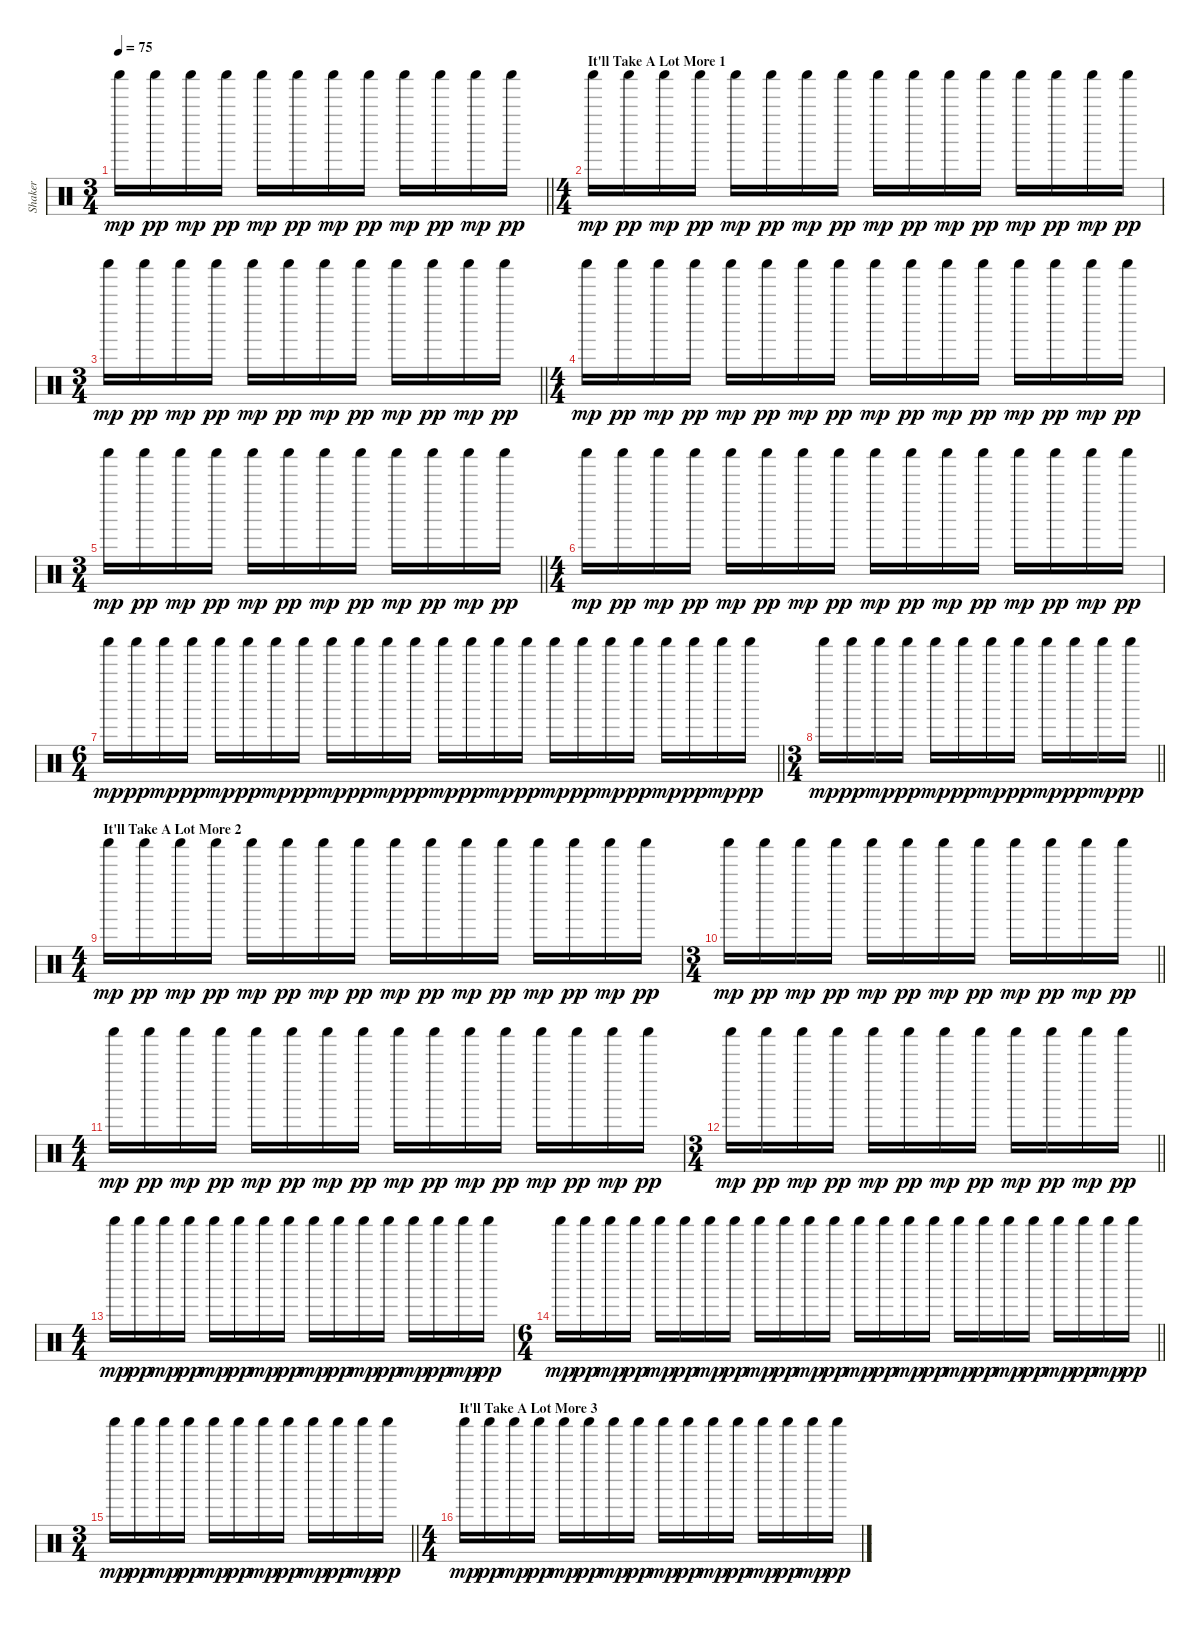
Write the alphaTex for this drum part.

\track ("Shaker" "Shaker") {instrument percussion}
\staff {score}
\articulation defaults
\ts (3 4)
\tempo 75
\clef neutral
\barLineRight lightlight
\ks c "Shaker (hit)".16{dy mp} "Shaker (hit)".16{dy pp} "Shaker (hit)".16{dy mp} "Shaker (hit)".16{dy pp} "Shaker (hit)".16{dy mp} "Shaker (hit)".16{dy pp} "Shaker (hit)".16{dy mp} "Shaker (hit)".16{dy pp} "Shaker (hit)".16{dy mp} "Shaker (hit)".16{dy pp} "Shaker (hit)".16{dy mp} "Shaker (hit)".16{dy pp}
|
\ts (4 4)
\section ("" "It'll Take A Lot More 1")
"Shaker (hit)".16{dy mp} "Shaker (hit)".16{dy pp} "Shaker (hit)".16{dy mp} "Shaker (hit)".16{dy pp} "Shaker (hit)".16{dy mp} "Shaker (hit)".16{dy pp} "Shaker (hit)".16{dy mp} "Shaker (hit)".16{dy pp} "Shaker (hit)".16{dy mp} "Shaker (hit)".16{dy pp} "Shaker (hit)".16{dy mp} "Shaker (hit)".16{dy pp} "Shaker (hit)".16{dy mp} "Shaker (hit)".16{dy pp} "Shaker (hit)".16{dy mp} "Shaker (hit)".16{dy pp} |
\ts (3 4)
\barLineRight lightlight "Shaker (hit)".16{dy mp} "Shaker (hit)".16{dy pp} "Shaker (hit)".16{dy mp} "Shaker (hit)".16{dy pp} "Shaker (hit)".16{dy mp} "Shaker (hit)".16{dy pp} "Shaker (hit)".16{dy mp} "Shaker (hit)".16{dy pp} "Shaker (hit)".16{dy mp} "Shaker (hit)".16{dy pp} "Shaker (hit)".16{dy mp} "Shaker (hit)".16{dy pp}
|
\ts (4 4)
"Shaker (hit)".16{dy mp} "Shaker (hit)".16{dy pp} "Shaker (hit)".16{dy mp} "Shaker (hit)".16{dy pp} "Shaker (hit)".16{dy mp} "Shaker (hit)".16{dy pp} "Shaker (hit)".16{dy mp} "Shaker (hit)".16{dy pp} "Shaker (hit)".16{dy mp} "Shaker (hit)".16{dy pp} "Shaker (hit)".16{dy mp} "Shaker (hit)".16{dy pp} "Shaker (hit)".16{dy mp} "Shaker (hit)".16{dy pp} "Shaker (hit)".16{dy mp} "Shaker (hit)".16{dy pp} |
\ts (3 4)
\barLineRight lightlight "Shaker (hit)".16{dy mp} "Shaker (hit)".16{dy pp} "Shaker (hit)".16{dy mp} "Shaker (hit)".16{dy pp} "Shaker (hit)".16{dy mp} "Shaker (hit)".16{dy pp} "Shaker (hit)".16{dy mp} "Shaker (hit)".16{dy pp} "Shaker (hit)".16{dy mp} "Shaker (hit)".16{dy pp} "Shaker (hit)".16{dy mp} "Shaker (hit)".16{dy pp}
|
\ts (4 4)
"Shaker (hit)".16{dy mp} "Shaker (hit)".16{dy pp} "Shaker (hit)".16{dy mp} "Shaker (hit)".16{dy pp} "Shaker (hit)".16{dy mp} "Shaker (hit)".16{dy pp} "Shaker (hit)".16{dy mp} "Shaker (hit)".16{dy pp} "Shaker (hit)".16{dy mp} "Shaker (hit)".16{dy pp} "Shaker (hit)".16{dy mp} "Shaker (hit)".16{dy pp} "Shaker (hit)".16{dy mp} "Shaker (hit)".16{dy pp} "Shaker (hit)".16{dy mp} "Shaker (hit)".16{dy pp} |
\ts (6 4)
\barLineRight lightlight "Shaker (hit)".16{dy mp} "Shaker (hit)".16{dy pp} "Shaker (hit)".16{dy mp} "Shaker (hit)".16{dy pp} "Shaker (hit)".16{dy mp} "Shaker (hit)".16{dy pp} "Shaker (hit)".16{dy mp} "Shaker (hit)".16{dy pp} "Shaker (hit)".16{dy mp} "Shaker (hit)".16{dy pp} "Shaker (hit)".16{dy mp} "Shaker (hit)".16{dy pp} "Shaker (hit)".16{dy mp} "Shaker (hit)".16{dy pp} "Shaker (hit)".16{dy mp} "Shaker (hit)".16{dy pp} "Shaker (hit)".16{dy mp} "Shaker (hit)".16{dy pp} "Shaker (hit)".16{dy mp} "Shaker (hit)".16{dy pp} "Shaker (hit)".16{dy mp} "Shaker (hit)".16{dy pp} "Shaker (hit)".16{dy mp} "Shaker (hit)".16{dy pp}
|
\ts (3 4)
\barLineRight lightlight "Shaker (hit)".16{dy mp} "Shaker (hit)".16{dy pp} "Shaker (hit)".16{dy mp} "Shaker (hit)".16{dy pp} "Shaker (hit)".16{dy mp} "Shaker (hit)".16{dy pp} "Shaker (hit)".16{dy mp} "Shaker (hit)".16{dy pp} "Shaker (hit)".16{dy mp} "Shaker (hit)".16{dy pp} "Shaker (hit)".16{dy mp} "Shaker (hit)".16{dy pp}
|
\ts (4 4)
\section ("" "It'll Take A Lot More 2")
"Shaker (hit)".16{dy mp} "Shaker (hit)".16{dy pp} "Shaker (hit)".16{dy mp} "Shaker (hit)".16{dy pp} "Shaker (hit)".16{dy mp} "Shaker (hit)".16{dy pp} "Shaker (hit)".16{dy mp} "Shaker (hit)".16{dy pp} "Shaker (hit)".16{dy mp} "Shaker (hit)".16{dy pp} "Shaker (hit)".16{dy mp} "Shaker (hit)".16{dy pp} "Shaker (hit)".16{dy mp} "Shaker (hit)".16{dy pp} "Shaker (hit)".16{dy mp} "Shaker (hit)".16{dy pp} |
\ts (3 4)
\barLineRight lightlight "Shaker (hit)".16{dy mp} "Shaker (hit)".16{dy pp} "Shaker (hit)".16{dy mp} "Shaker (hit)".16{dy pp} "Shaker (hit)".16{dy mp} "Shaker (hit)".16{dy pp} "Shaker (hit)".16{dy mp} "Shaker (hit)".16{dy pp} "Shaker (hit)".16{dy mp} "Shaker (hit)".16{dy pp} "Shaker (hit)".16{dy mp} "Shaker (hit)".16{dy pp}
|
\ts (4 4)
"Shaker (hit)".16{dy mp} "Shaker (hit)".16{dy pp} "Shaker (hit)".16{dy mp} "Shaker (hit)".16{dy pp} "Shaker (hit)".16{dy mp} "Shaker (hit)".16{dy pp} "Shaker (hit)".16{dy mp} "Shaker (hit)".16{dy pp} "Shaker (hit)".16{dy mp} "Shaker (hit)".16{dy pp} "Shaker (hit)".16{dy mp} "Shaker (hit)".16{dy pp} "Shaker (hit)".16{dy mp} "Shaker (hit)".16{dy pp} "Shaker (hit)".16{dy mp} "Shaker (hit)".16{dy pp} |
\ts (3 4)
\barLineRight lightlight "Shaker (hit)".16{dy mp} "Shaker (hit)".16{dy pp} "Shaker (hit)".16{dy mp} "Shaker (hit)".16{dy pp} "Shaker (hit)".16{dy mp} "Shaker (hit)".16{dy pp} "Shaker (hit)".16{dy mp} "Shaker (hit)".16{dy pp} "Shaker (hit)".16{dy mp} "Shaker (hit)".16{dy pp} "Shaker (hit)".16{dy mp} "Shaker (hit)".16{dy pp}
|
\ts (4 4)
"Shaker (hit)".16{dy mp} "Shaker (hit)".16{dy pp} "Shaker (hit)".16{dy mp} "Shaker (hit)".16{dy pp} "Shaker (hit)".16{dy mp} "Shaker (hit)".16{dy pp} "Shaker (hit)".16{dy mp} "Shaker (hit)".16{dy pp} "Shaker (hit)".16{dy mp} "Shaker (hit)".16{dy pp} "Shaker (hit)".16{dy mp} "Shaker (hit)".16{dy pp} "Shaker (hit)".16{dy mp} "Shaker (hit)".16{dy pp} "Shaker (hit)".16{dy mp} "Shaker (hit)".16{dy pp} |
\ts (6 4)
\barLineRight lightlight "Shaker (hit)".16{dy mp} "Shaker (hit)".16{dy pp} "Shaker (hit)".16{dy mp} "Shaker (hit)".16{dy pp} "Shaker (hit)".16{dy mp} "Shaker (hit)".16{dy pp} "Shaker (hit)".16{dy mp} "Shaker (hit)".16{dy pp} "Shaker (hit)".16{dy mp} "Shaker (hit)".16{dy pp} "Shaker (hit)".16{dy mp} "Shaker (hit)".16{dy pp} "Shaker (hit)".16{dy mp} "Shaker (hit)".16{dy pp} "Shaker (hit)".16{dy mp} "Shaker (hit)".16{dy pp} "Shaker (hit)".16{dy mp} "Shaker (hit)".16{dy pp} "Shaker (hit)".16{dy mp} "Shaker (hit)".16{dy pp} "Shaker (hit)".16{dy mp} "Shaker (hit)".16{dy pp} "Shaker (hit)".16{dy mp} "Shaker (hit)".16{dy pp}
|
\ts (3 4)
\barLineRight lightlight "Shaker (hit)".16{dy mp} "Shaker (hit)".16{dy pp} "Shaker (hit)".16{dy mp} "Shaker (hit)".16{dy pp} "Shaker (hit)".16{dy mp} "Shaker (hit)".16{dy pp} "Shaker (hit)".16{dy mp} "Shaker (hit)".16{dy pp} "Shaker (hit)".16{dy mp} "Shaker (hit)".16{dy pp} "Shaker (hit)".16{dy mp} "Shaker (hit)".16{dy pp}
|
\ts (4 4)
\section ("" "It'll Take A Lot More 3")
"Shaker (hit)".16{dy mp} "Shaker (hit)".16{dy pp} "Shaker (hit)".16{dy mp} "Shaker (hit)".16{dy pp} "Shaker (hit)".16{dy mp} "Shaker (hit)".16{dy pp} "Shaker (hit)".16{dy mp} "Shaker (hit)".16{dy pp} "Shaker (hit)".16{dy mp} "Shaker (hit)".16{dy pp} "Shaker (hit)".16{dy mp} "Shaker (hit)".16{dy pp} "Shaker (hit)".16{dy mp} "Shaker (hit)".16{dy pp} "Shaker (hit)".16{dy mp} "Shaker (hit)".16{dy pp}
